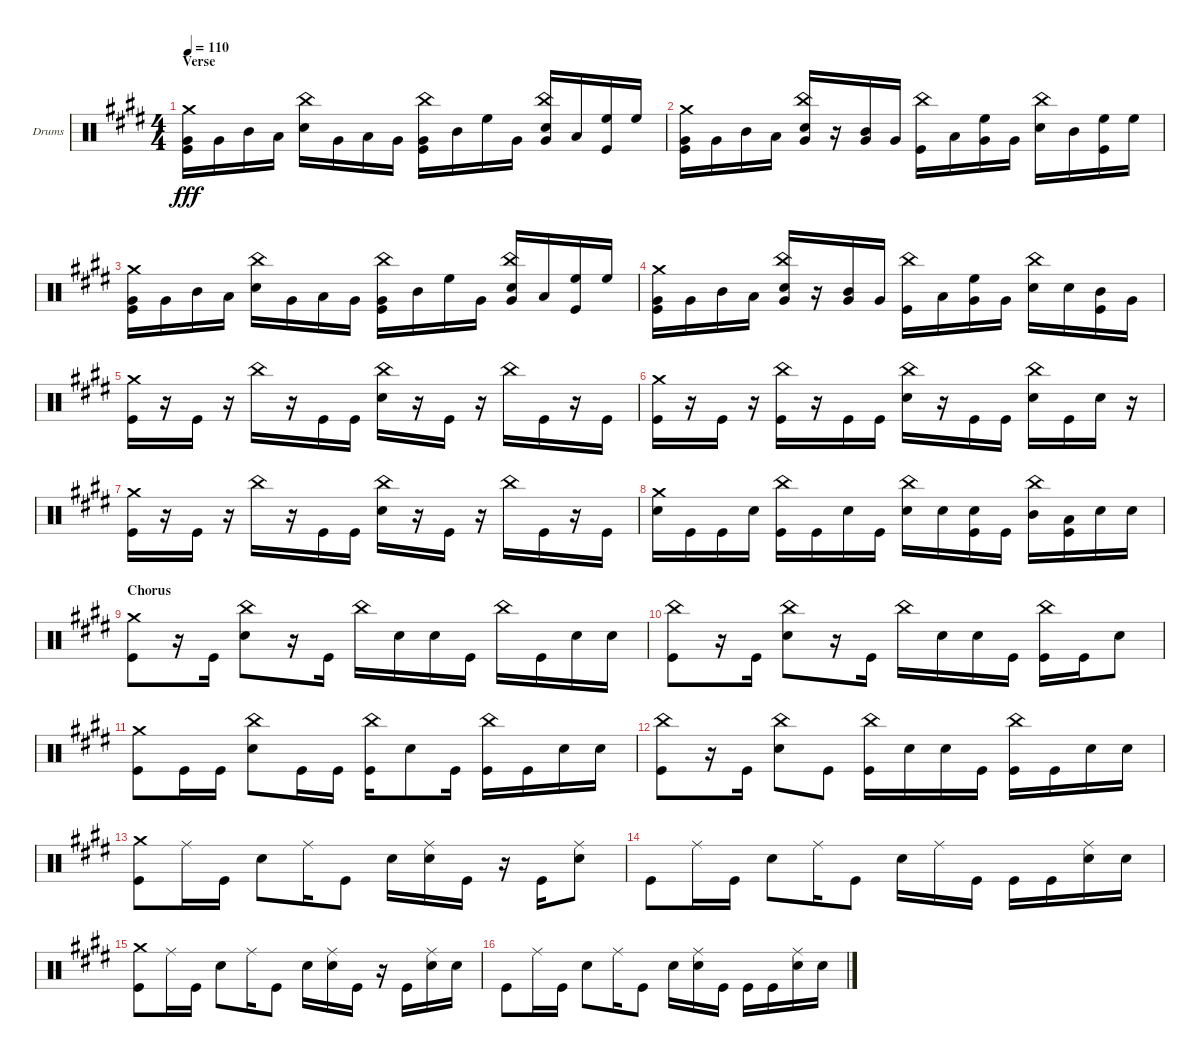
\bracketExtendMode groupsimilarinstruments
\firstSystemTrackNameOrientation horizontal
\otherSystemsTrackNameOrientation horizontal
\track ("Drumkit" "Drums") {instrument percussion}
\staff {score}
\articulation defaults
\ts (4 4)
\section ("" "Verse")
\tempo 110
\clef neutral
\scale
0.333333
\ks c#minor
("Very Low Tom (hit)" "Kick (hit)" "Crash medium (hit)").16{dy fff} "Very Low Tom (hit)".16 "Mid Tom (hit)".16 "Low Tom (hit)".16 ("China (hit)" "Snare (hit) 2").16 "Very Low Tom (hit)".16 "Low Tom (hit)".16 "Very Low Tom (hit)".16 ("Very Low Tom (hit)" "China (hit)" "Kick (hit)").16 "Mid Tom (hit)".16 "High Floor Tom (hit)".16 "Very Low Tom (hit)".16 ("Very Low Tom (hit)" "China (hit)" "Snare (hit) 2").16 "Low Tom (hit)".16 ("High Floor Tom (hit)" "Kick (hit)").16 "High Floor Tom (hit)".16 |
\scale
0.333333 ("Very Low Tom (hit)" "Crash medium (hit)" "Kick (hit)").16 "Very Low Tom (hit)".16 "Mid Tom (hit)".16 "Low Tom (hit)".16 ("Very Low Tom (hit)" "China (hit)" "Snare (hit) 2").16 r.16 ("Very Low Tom (hit)" "Mid Tom (hit)").16 "Very Low Tom (hit)".16 ("China (hit)" "Kick (hit)").16 "Low Tom (hit)".16 ("High Floor Tom (hit)" "Very Low Tom (hit)").16 "Very Low Tom (hit)".16 ("China (hit)" "Snare (hit) 2").16 "Mid Tom (hit)".16 ("High Floor Tom (hit)" "Kick (hit)").16 "High Floor Tom (hit)".16 |
\scale
0.333333 ("Very Low Tom (hit)" "Crash medium (hit)" "Kick (hit)").16 "Very Low Tom (hit)".16 "Mid Tom (hit)".16 "Low Tom (hit)".16 ("China (hit)" "Snare (hit) 2").16 "Very Low Tom (hit)".16 "Low Tom (hit)".16 "Very Low Tom (hit)".16 ("Very Low Tom (hit)" "China (hit)" "Kick (hit)").16 "Mid Tom (hit)".16 "High Floor Tom (hit)".16 "Very Low Tom (hit)".16 ("Snare (hit) 2" "Very Low Tom (hit)" "China (hit)").16 "Low Tom (hit)".16 ("High Floor Tom (hit)" "Kick (hit)").16 "High Floor Tom (hit)".16 |
\scale
0.333333 ("Very Low Tom (hit)" "Crash medium (hit)" "Kick (hit)").16 "Very Low Tom (hit)".16 "Mid Tom (hit)".16 "Low Tom (hit)".16 ("Snare (hit) 2" "Very Low Tom (hit)" "China (hit)").16 r.16 ("Very Low Tom (hit)" "Mid Tom (hit)").16 "Very Low Tom (hit)".16 ("China (hit)" "Kick (hit)").16 "Low Tom (hit)".16 ("High Floor Tom (hit)" "Very Low Tom (hit)").16 "Very Low Tom (hit)".16 ("Snare (hit) 2" "China (hit)").16 "Snare (hit) 2".16 ("Kick (hit)" "Mid Tom (hit)").16 "Very Low Tom (hit)".16 |
\scale
0.333333 ("Kick (hit)" "Crash medium (hit)").16 r.16 "Kick (hit)".16 r.16 "China (hit)".16 r.16 "Kick (hit)".16 "Kick (hit)".16 ("China (hit)" "Snare (hit) 2").16 r.16 "Kick (hit)".16 r.16 "China (hit)".16 "Kick (hit)".16 r.16 "Kick (hit)".16 |
\scale
0.333333 ("Kick (hit)" "Crash medium (hit)").16 r.16 "Kick (hit)".16 r.16 ("Kick (hit)" "China (hit)").16 r.16 "Kick (hit)".16 "Kick (hit)".16 ("Snare (hit) 2" "China (hit)").16 r.16 "Kick (hit)".16 "Kick (hit)".16 ("China (hit)" "Snare (hit) 2").16 "Kick (hit)".16 "Snare (hit) 2".16 r.16 |
\scale
0.333333 ("Kick (hit)" "Crash medium (hit)").16 r.16 "Kick (hit)".16 r.16 "China (hit)".16 r.16 "Kick (hit)".16 "Kick (hit)".16 ("Snare (hit) 2" "China (hit)").16 r.16 "Kick (hit)".16 r.16 "China (hit)".16 "Kick (hit)".16 r.16 "Kick (hit)".16 |
\scale
0.333333 ("Crash medium (hit)" "Snare (hit) 2").16 "Kick (hit)".16 "Kick (hit)".16 "Snare (hit) 2".16 ("Kick (hit)" "China (hit)").16 "Kick (hit)".16 "Snare (hit) 2".16 "Kick (hit)".16 ("China (hit)" "Snare (hit) 2").16 "Snare (hit) 2".16 ("Kick (hit)" "Snare (hit) 2").16 "Kick (hit)".16 ("China (hit)" "Mid Tom (hit)").16 ("Kick (hit)" "Low Tom (hit)").16 "Snare (hit) 2".16 "Snare (hit) 2".16 |
\section ("" "Chorus")
\scale
0.333333 ("Kick (hit)" "Crash medium (hit)").8 r.16 "Kick (hit)".16 ("Snare (hit) 2" "China (hit)").8 r.16 "Kick (hit)".16 "China (hit)".16 "Snare (hit) 2".16 "Snare (hit) 2".16 "Kick (hit)".16 "China (hit)".16 "Kick (hit)".16 "Snare (hit) 2".16 "Snare (hit) 2".16 |
\scale
0.333333 ("Kick (hit)" "China (hit)").8 r.16 "Kick (hit)".16 ("Snare (hit) 2" "China (hit)").8 r.16 "Kick (hit)".16 "China (hit)".16 "Snare (hit) 2".16 "Snare (hit) 2".16 "Kick (hit)".16 ("China (hit)" "Kick (hit)").16 "Kick (hit)".16 "Snare (hit) 2".8 |
\scale
0.333333 ("Crash medium (hit)" "Kick (hit)").8 "Kick (hit)".16 "Kick (hit)".16 ("Snare (hit) 2" "China (hit)").8 "Kick (hit)".16 "Kick (hit)".16 ("Kick (hit)" "China (hit)").16 "Snare (hit) 2".8 "Kick (hit)".16 ("Kick (hit)" "China (hit)").16 "Kick (hit)".16 "Snare (hit) 2".16 "Snare (hit) 2".16 |
\scale
0.333333 ("China (hit)" "Kick (hit)").8 r.16 "Kick (hit)".16 ("Snare (hit) 2" "China (hit)").8 "Kick (hit)".8 ("Kick (hit)" "China (hit)").16 "Snare (hit) 2".16 "Snare (hit) 2".16 "Kick (hit)".16 ("Kick (hit)" "China (hit)").16 "Kick (hit)".16 "Snare (hit) 2".16 "Snare (hit) 2".16 |
\scale
0.333333 ("Crash medium (hit)" "Kick (hit)").8 "Ride (middle)".16 "Kick (hit)".16 "Snare (hit) 2".8 "Ride (middle)".16 "Kick (hit)".8 "Snare (hit) 2".16 ("Snare (hit) 2" "Ride (middle)").16 "Kick (hit)".16 r.16 "Kick (hit)".16 ("Snare (hit) 2" "Ride (middle)").8 |
\scale
0.333333 "Kick (hit)".8 "Ride (middle)".16 "Kick (hit)".16 "Snare (hit) 2".8 "Ride (middle)".16 "Kick (hit)".8 "Snare (hit) 2".16 "Ride (middle)".16 "Kick (hit)".16 "Kick (hit)".16 "Kick (hit)".16 ("Snare (hit) 2" "Ride (middle)").16 "Snare (hit) 2".16 |
\scale
0.333333 ("Kick (hit)" "Crash medium (hit)").8 "Ride (middle)".16 "Kick (hit)".16 "Snare (hit) 2".8 "Ride (middle)".16 "Kick (hit)".8 "Snare (hit) 2".16 ("Snare (hit) 2" "Ride (middle)").16 "Kick (hit)".16 r.16 "Kick (hit)".16 ("Snare (hit) 2" "Ride (middle)").16 "Snare (hit) 2".16 |
\scale
0.333333 "Kick (hit)".8 "Ride (middle)".16 "Kick (hit)".16 "Snare (hit) 2".8 "Ride (middle)".16 "Kick (hit)".8 "Snare (hit) 2".16 ("Snare (hit) 2" "Ride (middle)").16 "Kick (hit)".16 "Kick (hit)".16 "Kick (hit)".16 ("Snare (hit) 2" "Ride (middle)").16 "Snare (hit) 2".16
